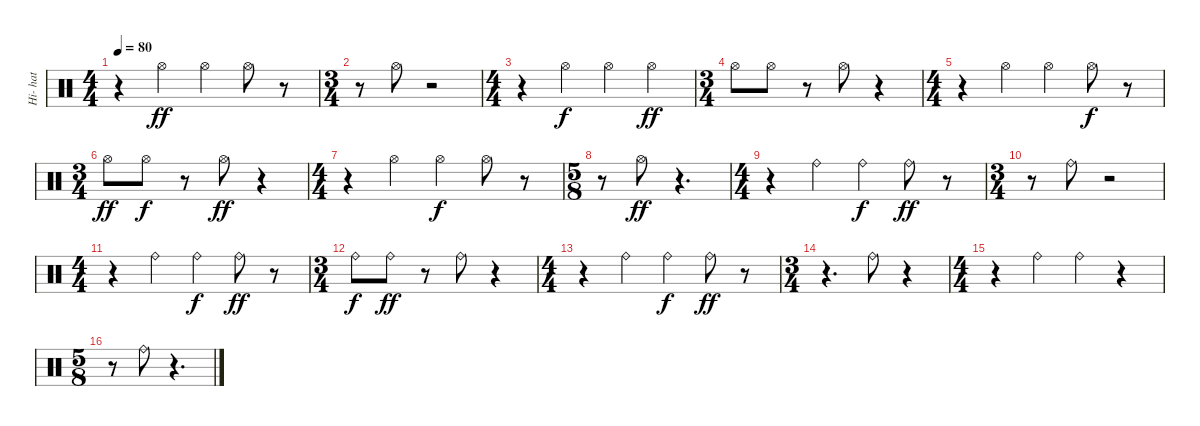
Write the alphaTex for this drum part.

\track ("Hi- hat" "Hi- hat") {instrument percussion}
\staff {score}
\articulation defaults
\ts (4 4)
\tempo 80
\clef neutral
\ks c
r.4{dy ff} "Hi-Hat (open)".4 "Hi-Hat (open)".4 "Hi-Hat (open)".8 r.8 |
\ts (3 4)
r.8 "Hi-Hat (open)".8 r.2 |
\ts (4 4)
r.4 "Hi-Hat (open)".4{dy f} "Hi-Hat (open)".4 "Hi-Hat (open)".4{dy ff} |
\ts (3 4)
"Hi-Hat (open)".8 "Hi-Hat (open)".8 r.8 "Hi-Hat (open)".8 r.4 |
\ts (4 4)
r.4 "Hi-Hat (open)".4 "Hi-Hat (open)".4 "Hi-Hat (open)".8{dy f} r.8 |
\ts (3 4)
"Hi-Hat (open)".8{dy ff} "Hi-Hat (open)".8{dy f} r.8 "Hi-Hat (open)".8{dy ff} r.4 |
\ts (4 4)
r.4 "Hi-Hat (open)".4 "Hi-Hat (open)".4{dy f} "Hi-Hat (open)".8 r.8 |
\ts (5 8)
r.8 "Hi-Hat (open)".8{dy ff} r.4{d} |
\ts (4 4)
r.4 "Ride (bell)".4 "Ride (bell)".4{dy f} "Ride (bell)".8{dy ff} r.8 |
\ts (3 4)
r.8 "Ride (bell)".8 r.2 |
\ts (4 4)
r.4 "Ride (bell)".4 "Ride (bell)".4{dy f} "Ride (bell)".8{dy ff} r.8 |
\ts (3 4)
"Ride (bell)".8{dy f} "Ride (bell)".8{dy ff} r.8 "Ride (bell)".8 r.4 |
\ts (4 4)
r.4 "Ride (bell)".4 "Ride (bell)".4{dy f} "Ride (bell)".8{dy ff} r.8 |
\ts (3 4)
r.4{d} "Ride (bell)".8 r.4 |
\ts (4 4)
r.4 "Ride (bell)".4 "Ride (bell)".4 r.4 |
\ts (5 8)
r.8 "Ride (bell)".8 r.4{d}
